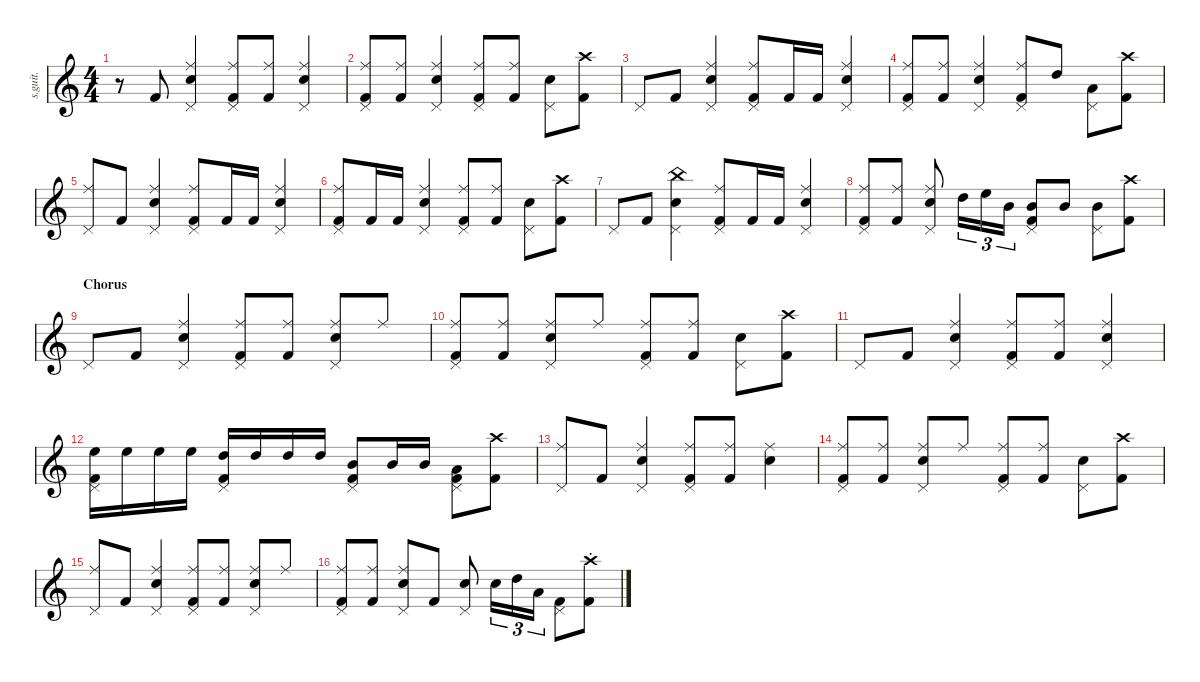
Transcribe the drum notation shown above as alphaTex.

\defaultSystemsLayout 4
\hideDynamics
\bracketExtendMode nobrackets
\track ("Nicko McBrain" "s.guit.") {instrument percussion}
\staff {score}
\articulation defaults
\ts (4 4)
\tempo (162 hide)
\clef g2
\ks c
r.8{dy f} "Kick (hit) 2".8{dy mf} ("Snare (hit) 2" "Ride (middle)" "Pedal Hi-Hat (hit)").4 ("Ride (middle)" "Kick (hit) 2" "Pedal Hi-Hat (hit)").8 ("Ride (middle)" "Kick (hit) 2").8 ("Ride (middle)" "Snare (hit) 2" "Pedal Hi-Hat (hit)").4 |
("Ride (middle)" "Kick (hit) 2" "Pedal Hi-Hat (hit)").8 ("Ride (middle)" "Kick (hit) 2").8 ("Ride (middle)" "Snare (hit) 2" "Pedal Hi-Hat (hit)").4 ("Pedal Hi-Hat (hit)" "Kick (hit) 2" "Ride (middle)").8 ("Kick (hit) 2" "Ride (middle)").8 ("Snare (hit) 2" "Pedal Hi-Hat (hit)").8 ("Crash high (hit)" "Kick (hit) 2").8 |
"Pedal Hi-Hat (hit)".8 "Kick (hit) 2".8 ("Ride (middle)" "Snare (hit) 2" "Pedal Hi-Hat (hit)").4 ("Ride (middle)" "Kick (hit) 2" "Pedal Hi-Hat (hit)").8 "Kick (hit) 2".16 "Kick (hit) 2".16 ("Ride (middle)" "Snare (hit) 2" "Pedal Hi-Hat (hit)").4 |
("Ride (middle)" "Kick (hit) 2" "Pedal Hi-Hat (hit)").8 ("Ride (middle)" "Kick (hit) 2").8 ("Ride (middle)" "Snare (hit) 2" "Pedal Hi-Hat (hit)").4 ("Pedal Hi-Hat (hit)" "Kick (hit) 2" "Ride (middle)").8 "High Tom (hit)".8 ("Low Tom (hit)" "Pedal Hi-Hat (hit)").8 ("Crash high (hit)" "Kick (hit) 2").8 |
("Pedal Hi-Hat (hit)" "Ride (middle)").8 "Kick (hit) 2".8 ("Ride (middle)" "Snare (hit) 2" "Pedal Hi-Hat (hit)").4 ("Ride (middle)" "Kick (hit) 2" "Pedal Hi-Hat (hit)").8 "Kick (hit) 2".16 "Kick (hit) 2".16 ("Ride (middle)" "Snare (hit) 2" "Pedal Hi-Hat (hit)").4 |
("Ride (middle)" "Kick (hit) 2" "Pedal Hi-Hat (hit)").8 "Kick (hit) 2".16 "Kick (hit) 2".16 ("Ride (middle)" "Snare (hit) 2" "Pedal Hi-Hat (hit)").4 ("Pedal Hi-Hat (hit)" "Kick (hit) 2" "Ride (middle)").8 ("Kick (hit) 2" "Ride (middle)").8 ("Snare (hit) 2" "Pedal Hi-Hat (hit)").8 ("Crash high (hit)" "Kick (hit) 2").8 |
"Pedal Hi-Hat (hit)".8 "Kick (hit) 2".8 ("Snare (hit) 2" "Pedal Hi-Hat (hit)" "China (hit)").4 ("Ride (middle)" "Kick (hit) 2" "Pedal Hi-Hat (hit)").8 "Kick (hit) 2".16 "Kick (hit) 2".16 ("Ride (middle)" "Snare (hit) 2" "Pedal Hi-Hat (hit)").4 |
("Ride (middle)" "Kick (hit) 2" "Pedal Hi-Hat (hit)").8 ("Ride (middle)" "Kick (hit) 2").8 ("Ride (middle)" "Snare (hit) 2" "Pedal Hi-Hat (hit)").8 "High Tom (hit)".16{tu (3 2)} "High Floor Tom (hit)".16{tu (3 2)} "Mid Tom (hit)".16{tu (3 2)} ("Kick (hit) 2" "Pedal Hi-Hat (hit)" "Mid Tom (hit)").8 "Mid Tom (hit)".8 ("Mid Tom (hit)" "Pedal Hi-Hat (hit)").8 ("Kick (hit) 2" "Crash high (hit)").8 |
\section ("" "Chorus")
"Pedal Hi-Hat (hit)".8 "Kick (hit) 2".8 ("Pedal Hi-Hat (hit)" "Snare (hit) 2" "Ride (middle)").4 ("Ride (middle)" "Pedal Hi-Hat (hit)" "Kick (hit) 2").8 ("Ride (middle)" "Kick (hit) 2").8 ("Ride (middle)" "Snare (hit) 2" "Pedal Hi-Hat (hit)").8 "Ride (middle)".8 |
("Ride (middle)" "Pedal Hi-Hat (hit)" "Kick (hit) 2").8 ("Ride (middle)" "Kick (hit) 2").8 ("Ride (middle)" "Snare (hit) 2" "Pedal Hi-Hat (hit)").8 "Ride (middle)".8 ("Pedal Hi-Hat (hit)" "Kick (hit) 2" "Ride (middle)").8 ("Kick (hit) 2" "Ride (middle)").8 ("Snare (hit) 2" "Pedal Hi-Hat (hit)").8 ("Crash high (hit)" "Kick (hit) 2").8 |
"Pedal Hi-Hat (hit)".8 "Kick (hit) 2".8 ("Pedal Hi-Hat (hit)" "Snare (hit) 2" "Ride (middle)").4 ("Ride (middle)" "Pedal Hi-Hat (hit)" "Kick (hit) 2").8 ("Ride (middle)" "Kick (hit) 2").8 ("Ride (middle)" "Snare (hit) 2" "Pedal Hi-Hat (hit)").4 |
("Kick (hit) 2" "Pedal Hi-Hat (hit)" "High Floor Tom (hit)").16 "High Floor Tom (hit)".16 "High Floor Tom (hit)".16 "High Floor Tom (hit)".16 ("High Tom (hit)" "Kick (hit) 2" "Pedal Hi-Hat (hit)").16 "High Tom (hit)".16 "High Tom (hit)".16 "High Tom (hit)".16 ("Mid Tom (hit)" "Kick (hit) 2" "Pedal Hi-Hat (hit)").8 "Mid Tom (hit)".16 "Mid Tom (hit)".16 ("Kick (hit) 2" "Pedal Hi-Hat (hit)" "Low Tom (hit)").8 ("Kick (hit) 2" "Crash high (hit)").8 |
("Pedal Hi-Hat (hit)" "Ride (middle)").8 "Kick (hit) 2".8 ("Ride (middle)" "Snare (hit) 2" "Pedal Hi-Hat (hit)").4 ("Pedal Hi-Hat (hit)" "Kick (hit) 2" "Ride (middle)").8 ("Ride (middle)" "Kick (hit) 2").8 ("Ride (middle)" "Snare (hit) 2").4 |
("Ride (middle)" "Pedal Hi-Hat (hit)" "Kick (hit) 2").8 ("Ride (middle)" "Kick (hit) 2").8 ("Ride (middle)" "Snare (hit) 2" "Pedal Hi-Hat (hit)").8 "Ride (middle)".8 ("Pedal Hi-Hat (hit)" "Kick (hit) 2" "Ride (middle)").8 ("Kick (hit) 2" "Ride (middle)").8 ("Snare (hit) 2" "Pedal Hi-Hat (hit)").8 ("Crash high (hit)" "Kick (hit) 2").8 |
("Pedal Hi-Hat (hit)" "Ride (middle)").8 "Kick (hit) 2".8 ("Ride (middle)" "Snare (hit) 2" "Pedal Hi-Hat (hit)").4 ("Pedal Hi-Hat (hit)" "Kick (hit) 2" "Ride (middle)").8 ("Ride (middle)" "Kick (hit) 2").8 ("Ride (middle)" "Snare (hit) 2" "Pedal Hi-Hat (hit)").8 "Ride (middle)".8 |
("Pedal Hi-Hat (hit)" "Kick (hit) 2" "Ride (middle)").8 ("Ride (middle)" "Kick (hit) 2").8 ("Ride (middle)" "Snare (hit) 2" "Pedal Hi-Hat (hit)").8 "Kick (hit) 2".8 ("Snare (hit) 2" "Pedal Hi-Hat (hit)").8{dy f} "Snare (hit) 2".16{tu (3 2)} "High Tom (hit)".16{tu (3 2)} "Low Tom (hit)".16{tu (3 2)} ("Kick (hit) 2" "Pedal Hi-Hat (hit)").8 ("Kick (hit) 2" "Crash high (choke)").8
